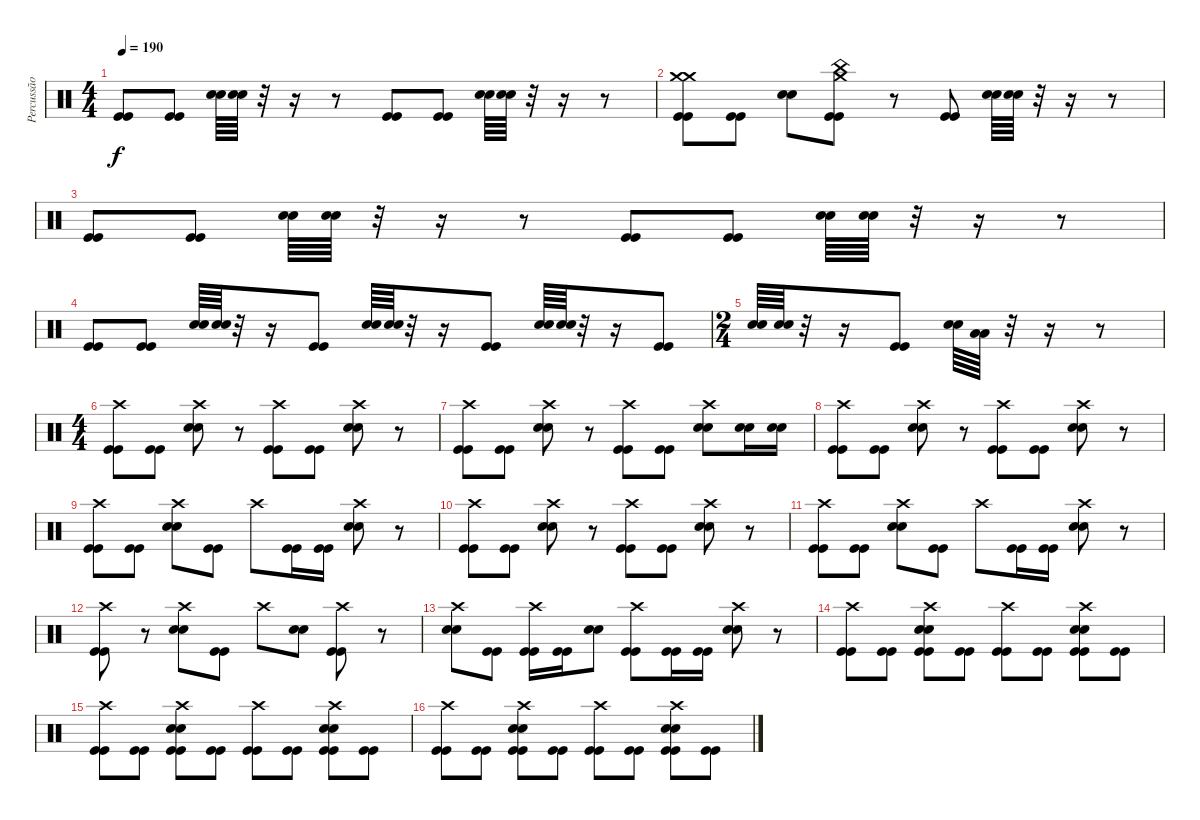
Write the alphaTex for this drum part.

\track ("Percussão" "Percussão") {instrument percussion}
\staff {score}
\articulation defaults
\ts (4 4)
\tempo 190
\clef neutral
\ks c
("Kick (hit)" "Kick (hit)").8{dy f} ("Kick (hit)" "Kick (hit)").8 ("Snare (hit) 2" "Snare (hit) 2").64 ("Snare (hit) 2" "Snare (hit) 2").64 r.32 r.16 r.8 ("Kick (hit)" "Kick (hit)").8 ("Kick (hit)" "Kick (hit)").8 ("Snare (hit) 2" "Snare (hit) 2").64 ("Snare (hit) 2" "Snare (hit) 2").64 r.32 r.16 r.8 |
("Crash medium (hit)" "Crash medium (hit)" "Kick (hit)" "Kick (hit)").8 ("Kick (hit)" "Kick (hit)").8 ("Snare (hit) 2" "Snare (hit) 2").8 ("Crash medium (hit)" "China (hit)" "Kick (hit)" "Kick (hit)").8 r.8 ("Kick (hit)" "Kick (hit)").8 ("Snare (hit) 2" "Snare (hit) 2").64 ("Snare (hit) 2" "Snare (hit) 2").64 r.32 r.16 r.8 |
("Kick (hit)" "Kick (hit)").8 ("Kick (hit)" "Kick (hit)").8 ("Snare (hit) 2" "Snare (hit) 2").64 ("Snare (hit) 2" "Snare (hit) 2").64 r.32 r.16 r.8 ("Kick (hit)" "Kick (hit)").8 ("Kick (hit)" "Kick (hit)").8 ("Snare (hit) 2" "Snare (hit) 2").64 ("Snare (hit) 2" "Snare (hit) 2").64 r.32 r.16 r.8 |
("Kick (hit)" "Kick (hit)").8 ("Kick (hit)" "Kick (hit)").8 ("Snare (hit) 2" "Snare (hit) 2").64 ("Snare (hit) 2" "Snare (hit) 2").64 r.32 r.16 ("Kick (hit)" "Kick (hit)").8 ("Snare (hit) 2" "Snare (hit) 2").64 ("Snare (hit) 2" "Snare (hit) 2").64 r.32 r.16 ("Kick (hit)" "Kick (hit)").8 ("Snare (hit) 2" "Snare (hit) 2").64 ("Snare (hit) 2" "Snare (hit) 2").64 r.32 r.16 ("Kick (hit)" "Kick (hit)").8 |
\ts (2 4)
("Snare (hit) 2" "Snare (hit) 2").64 ("Snare (hit) 2" "Snare (hit) 2").64 r.32 r.16 ("Kick (hit)" "Kick (hit)").8 ("Snare (hit) 2" "Snare (hit) 2").64 ("Low Floor Tom (hit)" "Low Floor Tom (hit)").64 r.32 r.16 r.8 |
\ts (4 4)
("Crash high (hit)" "Kick (hit)" "Kick (hit)").8 ("Kick (hit)" "Kick (hit)").8 ("Crash high (hit)" "Snare (hit) 2" "Snare (hit) 2").8 r.8 ("Crash high (hit)" "Kick (hit)" "Kick (hit)").8 ("Kick (hit)" "Kick (hit)").8 ("Crash high (hit)" "Snare (hit) 2" "Snare (hit) 2").8 r.8 |
("Crash high (hit)" "Kick (hit)" "Kick (hit)").8 ("Kick (hit)" "Kick (hit)").8 ("Crash high (hit)" "Snare (hit) 2" "Snare (hit) 2").8 r.8 ("Crash high (hit)" "Kick (hit)" "Kick (hit)").8 ("Kick (hit)" "Kick (hit)").8 ("Crash high (hit)" "Snare (hit) 2" "Snare (hit) 2").8 ("Snare (hit) 2" "Snare (hit) 2").16 ("Snare (hit) 2" "Snare (hit) 2").16 |
("Crash high (hit)" "Kick (hit)" "Kick (hit)").8 ("Kick (hit)" "Kick (hit)").8 ("Crash high (hit)" "Snare (hit) 2" "Snare (hit) 2").8 r.8 ("Crash high (hit)" "Kick (hit)" "Kick (hit)").8 ("Kick (hit)" "Kick (hit)").8 ("Crash high (hit)" "Snare (hit) 2" "Snare (hit) 2").8 r.8 |
("Crash high (hit)" "Kick (hit)" "Kick (hit)").8 ("Kick (hit)" "Kick (hit)").8 ("Crash high (hit)" "Snare (hit) 2" "Snare (hit) 2").8 ("Kick (hit)" "Kick (hit)").8 "Crash high (hit)".8 ("Kick (hit)" "Kick (hit)").16 ("Kick (hit)" "Kick (hit)").16 ("Crash high (hit)" "Snare (hit) 2" "Snare (hit) 2").8 r.8 |
("Crash high (hit)" "Kick (hit)" "Kick (hit)").8 ("Kick (hit)" "Kick (hit)").8 ("Crash high (hit)" "Snare (hit) 2" "Snare (hit) 2").8 r.8 ("Crash high (hit)" "Kick (hit)" "Kick (hit)").8 ("Kick (hit)" "Kick (hit)").8 ("Crash high (hit)" "Snare (hit) 2" "Snare (hit) 2").8 r.8 |
("Crash high (hit)" "Kick (hit)" "Kick (hit)").8 ("Kick (hit)" "Kick (hit)").8 ("Crash high (hit)" "Snare (hit) 2" "Snare (hit) 2").8 ("Kick (hit)" "Kick (hit)").8 "Crash high (hit)".8 ("Kick (hit)" "Kick (hit)").16 ("Kick (hit)" "Kick (hit)").16 ("Crash high (hit)" "Snare (hit) 2" "Snare (hit) 2").8 r.8 |
("Crash high (hit)" "Kick (hit)" "Kick (hit)").8 r.8 ("Crash high (hit)" "Snare (hit) 2" "Snare (hit) 2").8 ("Kick (hit)" "Kick (hit)").8 "Crash high (hit)".8 ("Snare (hit) 2" "Snare (hit) 2").8 ("Crash high (hit)" "Kick (hit)" "Kick (hit)").8 r.8 |
("Crash high (hit)" "Snare (hit) 2" "Snare (hit) 2").8 ("Kick (hit)" "Kick (hit)").8 ("Crash high (hit)" "Kick (hit)" "Kick (hit)").16 ("Kick (hit)" "Kick (hit)").16 ("Snare (hit) 2" "Snare (hit) 2").8 ("Crash high (hit)" "Kick (hit)" "Kick (hit)").8 ("Kick (hit)" "Kick (hit)").16 ("Kick (hit)" "Kick (hit)").16 ("Crash high (hit)" "Snare (hit) 2" "Snare (hit) 2").8 r.8 |
("Crash high (hit)" "Kick (hit)" "Kick (hit)").8 ("Kick (hit)" "Kick (hit)").8 ("Crash high (hit)" "Snare (hit) 2" "Snare (hit) 2" "Kick (hit)" "Kick (hit)").8 ("Kick (hit)" "Kick (hit)").8 ("Crash high (hit)" "Kick (hit)" "Kick (hit)").8 ("Kick (hit)" "Kick (hit)").8 ("Crash high (hit)" "Snare (hit) 2" "Snare (hit) 2" "Kick (hit)" "Kick (hit)").8 ("Kick (hit)" "Kick (hit)").8 |
("Crash high (hit)" "Kick (hit)" "Kick (hit)").8 ("Kick (hit)" "Kick (hit)").8 ("Crash high (hit)" "Snare (hit) 2" "Snare (hit) 2" "Kick (hit)" "Kick (hit)").8 ("Kick (hit)" "Kick (hit)").8 ("Crash high (hit)" "Kick (hit)" "Kick (hit)").8 ("Kick (hit)" "Kick (hit)").8 ("Crash high (hit)" "Snare (hit) 2" "Snare (hit) 2" "Kick (hit)" "Kick (hit)").8 ("Kick (hit)" "Kick (hit)").8 |
("Crash high (hit)" "Kick (hit)" "Kick (hit)").8 ("Kick (hit)" "Kick (hit)").8 ("Crash high (hit)" "Snare (hit) 2" "Snare (hit) 2" "Kick (hit)" "Kick (hit)").8 ("Kick (hit)" "Kick (hit)").8 ("Crash high (hit)" "Kick (hit)" "Kick (hit)").8 ("Kick (hit)" "Kick (hit)").8 ("Crash high (hit)" "Snare (hit) 2" "Snare (hit) 2" "Kick (hit)" "Kick (hit)").8 ("Kick (hit)" "Kick (hit)").8
